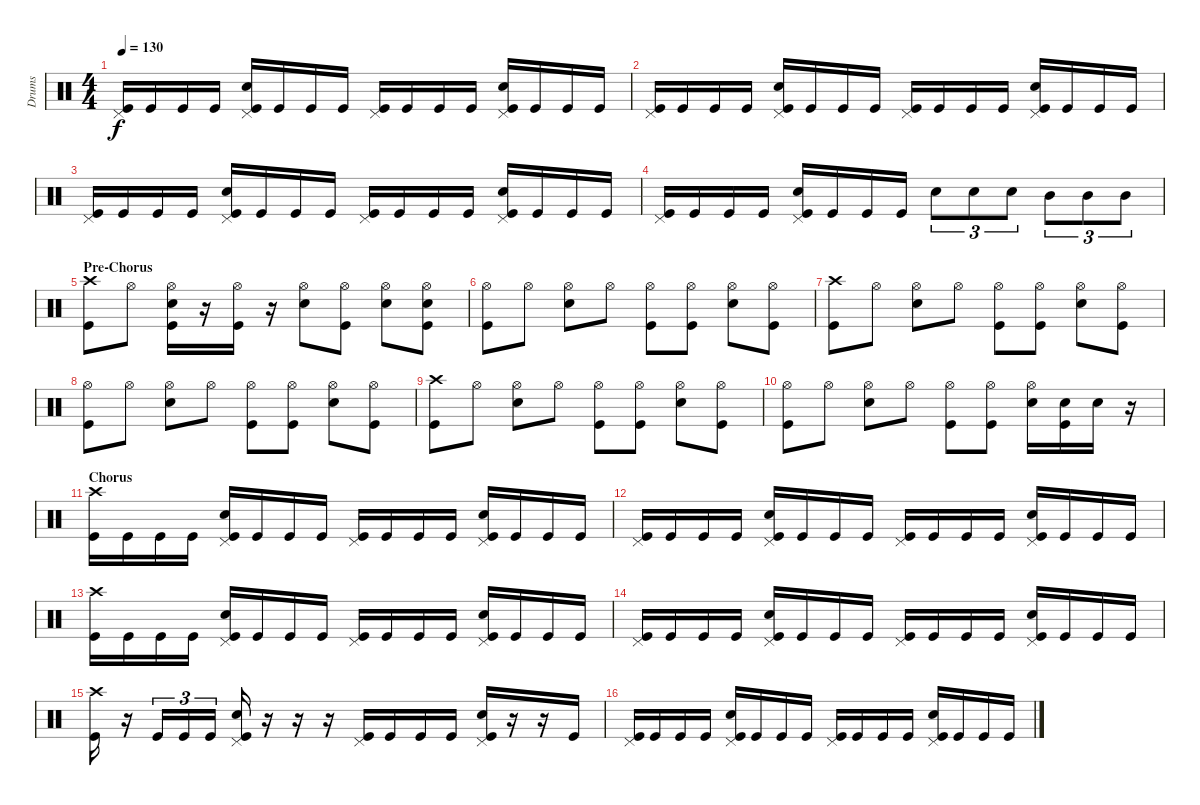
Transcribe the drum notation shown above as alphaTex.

\track ("Drums" "Drums") {instrument percussion}
\staff {score}
\articulation defaults
\ts (4 4)
\tempo 130
\clef neutral
\ks c
("Pedal Hi-Hat (hit)" "Kick (hit)").16{dy f} "Kick (hit)".16 "Kick (hit)".16 "Kick (hit)".16 ("Pedal Hi-Hat (hit)" "Snare (hit) 2" "Kick (hit)").16 "Kick (hit)".16 "Kick (hit)".16 "Kick (hit)".16 ("Pedal Hi-Hat (hit)" "Kick (hit)").16 "Kick (hit)".16 "Kick (hit)".16 "Kick (hit)".16 ("Pedal Hi-Hat (hit)" "Snare (hit) 2" "Kick (hit)").16 "Kick (hit)".16 "Kick (hit)".16 "Kick (hit)".16 |
("Pedal Hi-Hat (hit)" "Kick (hit)").16 "Kick (hit)".16 "Kick (hit)".16 "Kick (hit)".16 ("Pedal Hi-Hat (hit)" "Snare (hit) 2" "Kick (hit)").16 "Kick (hit)".16 "Kick (hit)".16 "Kick (hit)".16 ("Pedal Hi-Hat (hit)" "Kick (hit)").16 "Kick (hit)".16 "Kick (hit)".16 "Kick (hit)".16 ("Pedal Hi-Hat (hit)" "Snare (hit) 2" "Kick (hit)").16 "Kick (hit)".16 "Kick (hit)".16 "Kick (hit)".16 |
("Pedal Hi-Hat (hit)" "Kick (hit)").16 "Kick (hit)".16 "Kick (hit)".16 "Kick (hit)".16 ("Pedal Hi-Hat (hit)" "Snare (hit) 2" "Kick (hit)").16 "Kick (hit)".16 "Kick (hit)".16 "Kick (hit)".16 ("Pedal Hi-Hat (hit)" "Kick (hit)").16 "Kick (hit)".16 "Kick (hit)".16 "Kick (hit)".16 ("Pedal Hi-Hat (hit)" "Snare (hit) 2" "Kick (hit)").16 "Kick (hit)".16 "Kick (hit)".16 "Kick (hit)".16 |
("Pedal Hi-Hat (hit)" "Kick (hit)").16 "Kick (hit)".16 "Kick (hit)".16 "Kick (hit)".16 ("Pedal Hi-Hat (hit)" "Snare (hit) 2" "Kick (hit)").16 "Kick (hit)".16 "Kick (hit)".16 "Kick (hit)".16 "Snare (hit) 2".8{tu (3 2)} "Snare (hit) 2".8{tu (3 2)} "Snare (hit) 2".8{tu (3 2)} "Mid Tom (hit)".8{tu (3 2)} "Mid Tom (hit)".8{tu (3 2)} "Mid Tom (hit)".8{tu (3 2)} |
\section ("" "Pre-Chorus")
("Crash high (hit)" "Kick (hit)").8 "Hi-Hat (open)".8 ("Hi-Hat (open)" "Snare (hit) 2" "Kick (hit)").16 r.16 ("Hi-Hat (open)" "Kick (hit)").16 r.16 ("Hi-Hat (open)" "Snare (hit) 2").8 ("Hi-Hat (open)" "Kick (hit)").8 ("Hi-Hat (open)" "Snare (hit) 2").8 ("Hi-Hat (open)" "Snare (hit) 2" "Kick (hit)").8 |
("Hi-Hat (open)" "Kick (hit)").8 "Hi-Hat (open)".8 ("Hi-Hat (open)" "Snare (hit) 2").8 "Hi-Hat (open)".8 ("Hi-Hat (open)" "Kick (hit)").8 ("Hi-Hat (open)" "Kick (hit)").8 ("Hi-Hat (open)" "Snare (hit) 2").8 ("Hi-Hat (open)" "Kick (hit)").8 |
("Crash high (hit)" "Kick (hit)").8 "Hi-Hat (open)".8 ("Hi-Hat (open)" "Snare (hit) 2").8 "Hi-Hat (open)".8 ("Hi-Hat (open)" "Kick (hit)").8 ("Hi-Hat (open)" "Kick (hit)").8 ("Hi-Hat (open)" "Snare (hit) 2").8 ("Hi-Hat (open)" "Kick (hit)").8 |
("Hi-Hat (open)" "Kick (hit)").8 "Hi-Hat (open)".8 ("Hi-Hat (open)" "Snare (hit) 2").8 "Hi-Hat (open)".8 ("Hi-Hat (open)" "Kick (hit)").8 ("Hi-Hat (open)" "Kick (hit)").8 ("Hi-Hat (open)" "Snare (hit) 2").8 ("Hi-Hat (open)" "Kick (hit)").8 |
("Crash high (hit)" "Kick (hit)").8 "Hi-Hat (open)".8 ("Hi-Hat (open)" "Snare (hit) 2").8 "Hi-Hat (open)".8 ("Hi-Hat (open)" "Kick (hit)").8 ("Hi-Hat (open)" "Kick (hit)").8 ("Hi-Hat (open)" "Snare (hit) 2").8 ("Hi-Hat (open)" "Kick (hit)").8 |
("Hi-Hat (open)" "Kick (hit)").8 "Hi-Hat (open)".8 ("Hi-Hat (open)" "Snare (hit) 2").8 "Hi-Hat (open)".8 ("Hi-Hat (open)" "Kick (hit)").8 ("Hi-Hat (open)" "Kick (hit)").8 ("Hi-Hat (open)" "Snare (hit) 2").16 ("Snare (hit) 2" "Kick (hit)").16 "Snare (hit) 2".16 r.16 |
\section ("" "Chorus")
("Crash high (hit)" "Kick (hit)").16 "Kick (hit)".16 "Kick (hit)".16 "Kick (hit)".16 ("Pedal Hi-Hat (hit)" "Snare (hit) 2" "Kick (hit)").16 "Kick (hit)".16 "Kick (hit)".16 "Kick (hit)".16 ("Pedal Hi-Hat (hit)" "Kick (hit)").16 "Kick (hit)".16 "Kick (hit)".16 "Kick (hit)".16 ("Pedal Hi-Hat (hit)" "Snare (hit) 2" "Kick (hit)").16 "Kick (hit)".16 "Kick (hit)".16 "Kick (hit)".16 |
("Pedal Hi-Hat (hit)" "Kick (hit)").16 "Kick (hit)".16 "Kick (hit)".16 "Kick (hit)".16 ("Pedal Hi-Hat (hit)" "Snare (hit) 2" "Kick (hit)").16 "Kick (hit)".16 "Kick (hit)".16 "Kick (hit)".16 ("Pedal Hi-Hat (hit)" "Kick (hit)").16 "Kick (hit)".16 "Kick (hit)".16 "Kick (hit)".16 ("Pedal Hi-Hat (hit)" "Snare (hit) 2" "Kick (hit)").16 "Kick (hit)".16 "Kick (hit)".16 "Kick (hit)".16 |
("Crash high (hit)" "Kick (hit)").16 "Kick (hit)".16 "Kick (hit)".16 "Kick (hit)".16 ("Pedal Hi-Hat (hit)" "Snare (hit) 2" "Kick (hit)").16 "Kick (hit)".16 "Kick (hit)".16 "Kick (hit)".16 ("Pedal Hi-Hat (hit)" "Kick (hit)").16 "Kick (hit)".16 "Kick (hit)".16 "Kick (hit)".16 ("Pedal Hi-Hat (hit)" "Snare (hit) 2" "Kick (hit)").16 "Kick (hit)".16 "Kick (hit)".16 "Kick (hit)".16 |
("Pedal Hi-Hat (hit)" "Kick (hit)").16 "Kick (hit)".16 "Kick (hit)".16 "Kick (hit)".16 ("Pedal Hi-Hat (hit)" "Snare (hit) 2" "Kick (hit)").16 "Kick (hit)".16 "Kick (hit)".16 "Kick (hit)".16 ("Pedal Hi-Hat (hit)" "Kick (hit)").16 "Kick (hit)".16 "Kick (hit)".16 "Kick (hit)".16 ("Pedal Hi-Hat (hit)" "Snare (hit) 2" "Kick (hit)").16 "Kick (hit)".16 "Kick (hit)".16 "Kick (hit)".16 |
("Crash high (hit)" "Kick (hit)").16 r.16 "Kick (hit)".16{tu (3 2)} "Kick (hit)".16{tu (3 2)} "Kick (hit)".16{tu (3 2)} ("Pedal Hi-Hat (hit)" "Snare (hit) 2" "Kick (hit)").16 r.16 r.16 r.16 ("Pedal Hi-Hat (hit)" "Kick (hit)").16 "Kick (hit)".16 "Kick (hit)".16 "Kick (hit)".16 ("Pedal Hi-Hat (hit)" "Snare (hit) 2" "Kick (hit)").16 r.16 r.16 "Kick (hit)".16 |
("Pedal Hi-Hat (hit)" "Kick (hit)").16 "Kick (hit)".16 "Kick (hit)".16 "Kick (hit)".16 ("Pedal Hi-Hat (hit)" "Snare (hit) 2" "Kick (hit)").16 "Kick (hit)".16 "Kick (hit)".16 "Kick (hit)".16 ("Pedal Hi-Hat (hit)" "Kick (hit)").16 "Kick (hit)".16 "Kick (hit)".16 "Kick (hit)".16 ("Pedal Hi-Hat (hit)" "Snare (hit) 2" "Kick (hit)").16 "Kick (hit)".16 "Kick (hit)".16 "Kick (hit)".16
